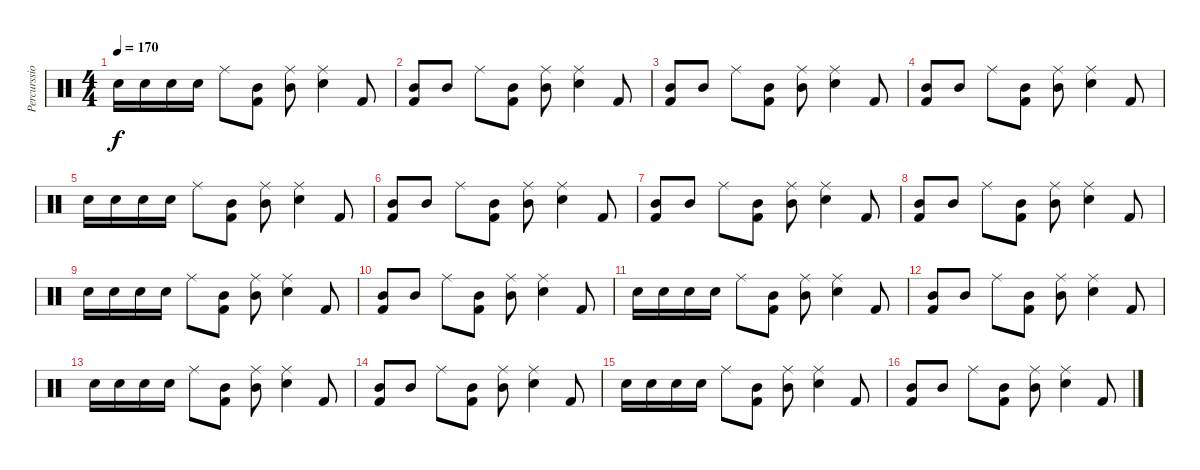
\track ("Percurssion" "Percurssio") {instrument percussion}
\staff {score}
\articulation defaults
\ts (4 4)
\tempo 170
\clef neutral
\ks c "Electric Snare (hit)".16{dy f} "Electric Snare (hit)".16 "Electric Snare (hit)".16 "Electric Snare (hit)".16 "Ride (middle)".8
("Mid Tom (hit)" "Kick (hit) 2").8 ("Mid Tom (hit)" "Ride (middle)").8 ("Ride (middle)" "Electric Snare (hit)").4 "Kick (hit) 2".8 |
("Mid Tom (hit)" "Kick (hit) 2").8 "Mid Tom (hit)".8 "Ride (middle)".8 ("Mid Tom (hit)" "Kick (hit) 2").8 ("Mid Tom (hit)" "Ride (middle)").8 ("Ride (middle)" "Electric Snare (hit)").4 "Kick (hit) 2".8 |
("Mid Tom (hit)" "Kick (hit) 2").8 "Mid Tom (hit)".8 "Ride (middle)".8 ("Mid Tom (hit)" "Kick (hit) 2").8 ("Mid Tom (hit)" "Ride (middle)").8 ("Ride (middle)" "Electric Snare (hit)").4 "Kick (hit) 2".8 |
("Mid Tom (hit)" "Kick (hit) 2").8 "Mid Tom (hit)".8 "Ride (middle)".8 ("Mid Tom (hit)" "Kick (hit) 2").8 ("Mid Tom (hit)" "Ride (middle)").8 ("Ride (middle)" "Electric Snare (hit)").4 "Kick (hit) 2".8 |
"Electric Snare (hit)".16 "Electric Snare (hit)".16 "Electric Snare (hit)".16 "Electric Snare (hit)".16 "Ride (middle)".8 ("Mid Tom (hit)" "Kick (hit) 2").8 ("Mid Tom (hit)" "Ride (middle)").8 ("Ride (middle)" "Electric Snare (hit)").4 "Kick (hit) 2".8 |
("Mid Tom (hit)" "Kick (hit) 2").8 "Mid Tom (hit)".8 "Ride (middle)".8 ("Mid Tom (hit)" "Kick (hit) 2").8 ("Mid Tom (hit)" "Ride (middle)").8 ("Ride (middle)" "Electric Snare (hit)").4 "Kick (hit) 2".8 |
("Mid Tom (hit)" "Kick (hit) 2").8 "Mid Tom (hit)".8 "Ride (middle)".8 ("Mid Tom (hit)" "Kick (hit) 2").8 ("Mid Tom (hit)" "Ride (middle)").8 ("Ride (middle)" "Electric Snare (hit)").4 "Kick (hit) 2".8 |
("Mid Tom (hit)" "Kick (hit) 2").8 "Mid Tom (hit)".8 "Ride (middle)".8 ("Mid Tom (hit)" "Kick (hit) 2").8 ("Mid Tom (hit)" "Ride (middle)").8 ("Ride (middle)" "Electric Snare (hit)").4 "Kick (hit) 2".8 |
"Electric Snare (hit)".16 "Electric Snare (hit)".16 "Electric Snare (hit)".16 "Electric Snare (hit)".16 "Ride (middle)".8 ("Mid Tom (hit)" "Kick (hit) 2").8 ("Mid Tom (hit)" "Ride (middle)").8 ("Ride (middle)" "Electric Snare (hit)").4 "Kick (hit) 2".8 |
("Mid Tom (hit)" "Kick (hit) 2").8 "Mid Tom (hit)".8 "Ride (middle)".8 ("Mid Tom (hit)" "Kick (hit) 2").8 ("Mid Tom (hit)" "Ride (middle)").8 ("Ride (middle)" "Electric Snare (hit)").4 "Kick (hit) 2".8 |
"Electric Snare (hit)".16 "Electric Snare (hit)".16 "Electric Snare (hit)".16 "Electric Snare (hit)".16 "Ride (middle)".8 ("Mid Tom (hit)" "Kick (hit) 2").8 ("Mid Tom (hit)" "Ride (middle)").8 ("Ride (middle)" "Electric Snare (hit)").4 "Kick (hit) 2".8 |
("Mid Tom (hit)" "Kick (hit) 2").8 "Mid Tom (hit)".8 "Ride (middle)".8 ("Mid Tom (hit)" "Kick (hit) 2").8 ("Mid Tom (hit)" "Ride (middle)").8 ("Ride (middle)" "Electric Snare (hit)").4 "Kick (hit) 2".8 |
"Electric Snare (hit)".16 "Electric Snare (hit)".16 "Electric Snare (hit)".16 "Electric Snare (hit)".16 "Ride (middle)".8 ("Mid Tom (hit)" "Kick (hit) 2").8 ("Mid Tom (hit)" "Ride (middle)").8 ("Ride (middle)" "Electric Snare (hit)").4 "Kick (hit) 2".8 |
("Mid Tom (hit)" "Kick (hit) 2").8 "Mid Tom (hit)".8 "Ride (middle)".8 ("Mid Tom (hit)" "Kick (hit) 2").8 ("Mid Tom (hit)" "Ride (middle)").8 ("Ride (middle)" "Electric Snare (hit)").4 "Kick (hit) 2".8 |
"Electric Snare (hit)".16 "Electric Snare (hit)".16 "Electric Snare (hit)".16 "Electric Snare (hit)".16 "Ride (middle)".8 ("Mid Tom (hit)" "Kick (hit) 2").8 ("Mid Tom (hit)" "Ride (middle)").8 ("Ride (middle)" "Electric Snare (hit)").4 "Kick (hit) 2".8 |
("Mid Tom (hit)" "Kick (hit) 2").8 "Mid Tom (hit)".8 "Ride (middle)".8 ("Mid Tom (hit)" "Kick (hit) 2").8 ("Mid Tom (hit)" "Ride (middle)").8 ("Ride (middle)" "Electric Snare (hit)").4 "Kick (hit) 2".8
